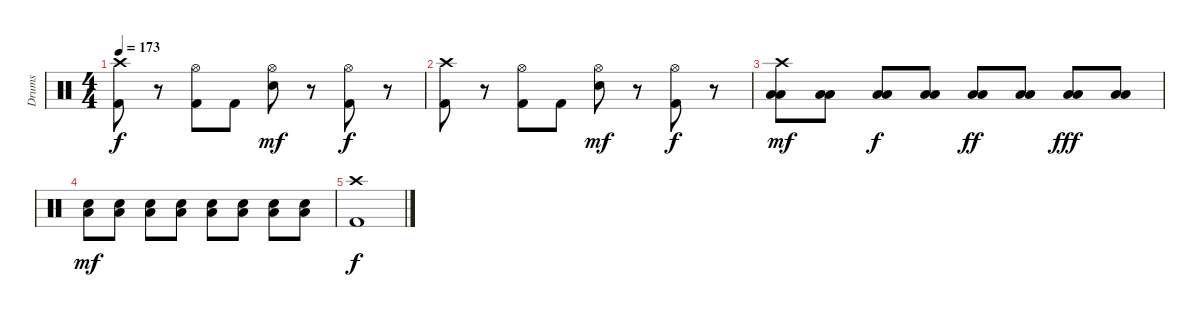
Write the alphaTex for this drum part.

\track ("Drums" "Drums") {instrument percussion}
\staff {score}
\articulation defaults
\ts (4 4)
\tempo 173
\clef neutral
\ks c
("Crash high (hit)" "Kick (hit) 2").8{dy f} r.8 ("Hi-Hat (open)" "Kick (hit) 2").8 "Kick (hit) 2".8 ("Hi-Hat (open)" "Snare (hit) 2").8{dy mf} r.8 ("Hi-Hat (open)" "Kick (hit) 2").8{dy f} r.8 |
("Crash high (hit)" "Kick (hit) 2").8 r.8 ("Hi-Hat (open)" "Kick (hit) 2").8 "Kick (hit) 2".8 ("Hi-Hat (open)" "Snare (hit) 2").8{dy mf} r.8 ("Hi-Hat (open)" "Kick (hit) 2").8{dy f} r.8 |
("Crash high (hit)" "Low Tom (hit)" "Low Floor Tom (hit)").8{dy mf} ("Low Tom (hit)" "Low Floor Tom (hit)").8 ("Low Tom (hit)" "Low Floor Tom (hit)").8{dy f} ("Low Tom (hit)" "Low Floor Tom (hit)").8 ("Low Tom (hit)" "Low Floor Tom (hit)").8{dy ff} ("Low Tom (hit)" "Low Floor Tom (hit)").8 ("Low Tom (hit)" "Low Floor Tom (hit)").8{dy fff} ("Low Tom (hit)" "Low Floor Tom (hit)").8 |
("Snare (hit) 2" "Low Floor Tom (hit)").8{dy mf} ("Snare (hit) 2" "Low Floor Tom (hit)").8 ("Snare (hit) 2" "Low Floor Tom (hit)").8 ("Snare (hit) 2" "Low Floor Tom (hit)").8 ("Snare (hit) 2" "Low Floor Tom (hit)").8 ("Snare (hit) 2" "Low Floor Tom (hit)").8 ("Snare (hit) 2" "Low Floor Tom (hit)").8 ("Snare (hit) 2" "Low Floor Tom (hit)").8 |
("Crash high (hit)" "Kick (hit) 2").1{dy f}
